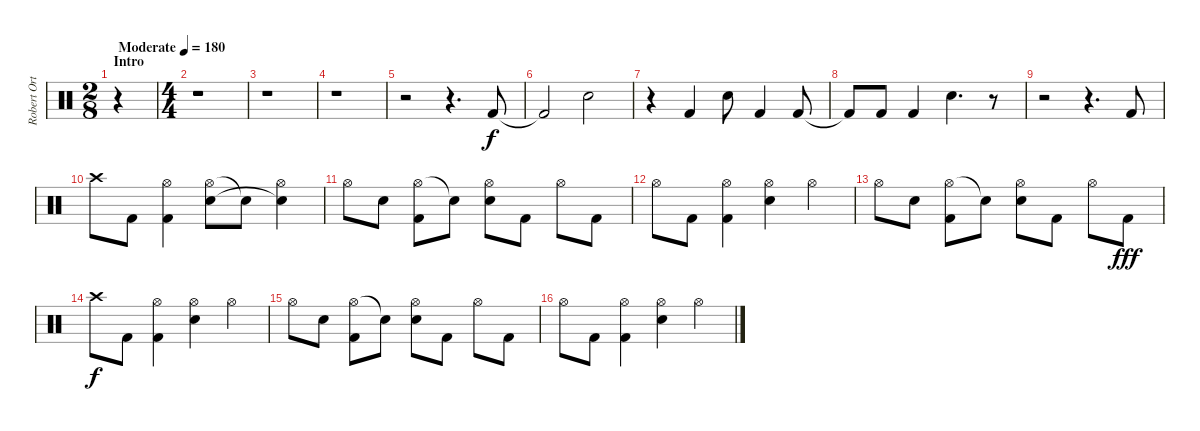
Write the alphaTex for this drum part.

\track ("Robert Ortiz [Drums]" "Robert Ort") {instrument percussion}
\staff {score}
\articulation defaults
\ts (2 8)
\section ("" "Intro")
\tempo (180 "Moderate")
\clef neutral
\ks c
r.4{dy f} |
\ts (4 4)
r.1 |
r.1 |
r.1 |
r.2 r.4{d} "Kick (hit) 2".8{balance 0} |
"Kick (hit) 2"{t}.2 "Electric Snare (hit)".2 |
r.4 "Kick (hit) 2".4 "Electric Snare (hit)".8 "Kick (hit) 2".4 "Kick (hit) 2".8 |
"Kick (hit) 2"{t}.8 "Kick (hit) 2".8 "Kick (hit) 2".4 "Electric Snare (hit)".4{d} r.8 |
r.2 r.4{d} "Kick (hit) 2".8{balance 8} |
"Crash high (hit)".8 "Kick (hit) 2".8 ("Hi-Hat (open)" "Kick (hit) 2").4 ("Hi-Hat (open)" "Electric Snare (hit)").8 "Snare (hit)"{t}.8 ("Hi-Hat (open)" "Snare (hit)"{t}).4 |
"Hi-Hat (open)".8 "Electric Snare (hit)".8 ("Hi-Hat (open)" "Kick (hit) 2").8 "Snare (hit)"{t}.8 ("Hi-Hat (open)" "Electric Snare (hit)").8 "Kick (hit) 2".8 "Hi-Hat (open)".8 "Kick (hit) 2".8 |
"Hi-Hat (open)".8 "Kick (hit) 2".8 ("Hi-Hat (open)" "Kick (hit) 2").4 ("Hi-Hat (open)" "Electric Snare (hit)").4 "Hi-Hat (open)".4 |
"Hi-Hat (open)".8 "Electric Snare (hit)".8 ("Hi-Hat (open)" "Kick (hit) 2").8 "Snare (hit)"{t}.8 ("Hi-Hat (open)" "Electric Snare (hit)").8 "Kick (hit) 2".8 "Hi-Hat (open)".8 "Kick (hit) 2".8{dy fff} |
"Crash high (hit)".8{dy f} "Kick (hit) 2".8 ("Hi-Hat (open)" "Kick (hit) 2").4 ("Hi-Hat (open)" "Electric Snare (hit)").4 "Hi-Hat (open)".4 |
"Hi-Hat (open)".8 "Electric Snare (hit)".8 ("Hi-Hat (open)" "Kick (hit) 2").8 "Snare (hit)"{t}.8 ("Hi-Hat (open)" "Electric Snare (hit)").8 "Kick (hit) 2".8 "Hi-Hat (open)".8 "Kick (hit) 2".8 |
"Hi-Hat (open)".8 "Kick (hit) 2".8 ("Hi-Hat (open)" "Kick (hit) 2").4 ("Hi-Hat (open)" "Electric Snare (hit)").4 "Hi-Hat (open)".4
